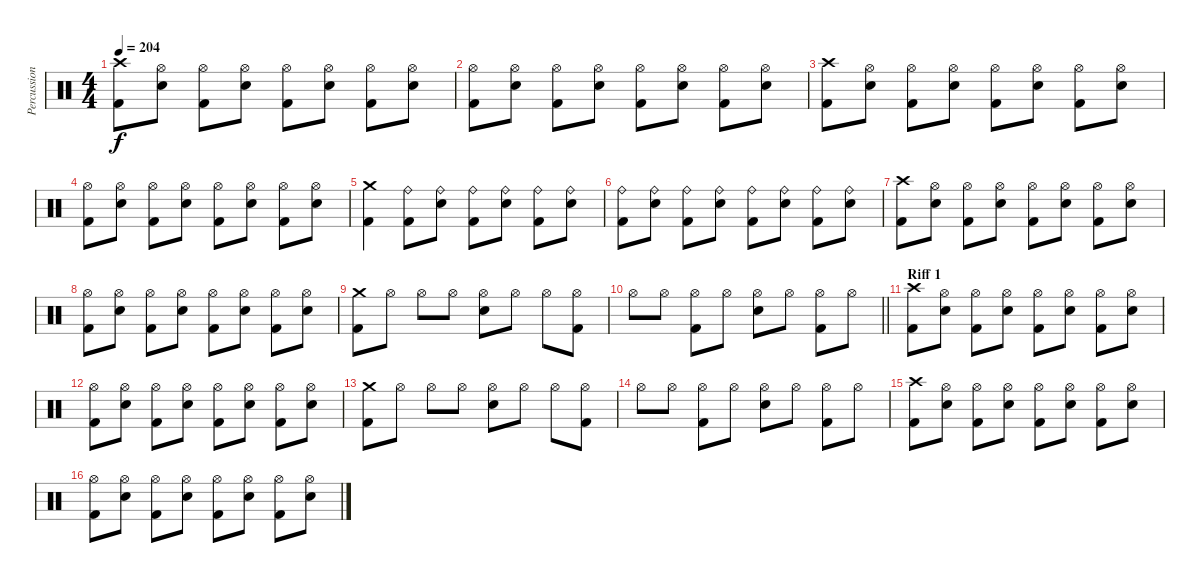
\track ("Percussions" "Percussion") {instrument percussion}
\staff {score}
\articulation defaults
\ts (4 4)
\tempo 204
\clef neutral
\ks c
("Crash high (hit)" "Kick (hit) 2").8{dy f} ("Hi-Hat (open)" "Electric Snare (hit)").8 ("Hi-Hat (open)" "Kick (hit) 2").8 ("Hi-Hat (open)" "Electric Snare (hit)").8 ("Hi-Hat (open)" "Kick (hit) 2").8 ("Hi-Hat (open)" "Electric Snare (hit)").8 ("Hi-Hat (open)" "Kick (hit) 2").8 ("Hi-Hat (open)" "Electric Snare (hit)").8 |
("Hi-Hat (open)" "Kick (hit) 2").8 ("Hi-Hat (open)" "Electric Snare (hit)").8 ("Hi-Hat (open)" "Kick (hit) 2").8 ("Hi-Hat (open)" "Electric Snare (hit)").8 ("Hi-Hat (open)" "Kick (hit) 2").8 ("Hi-Hat (open)" "Electric Snare (hit)").8 ("Hi-Hat (open)" "Kick (hit) 2").8 ("Hi-Hat (open)" "Electric Snare (hit)").8 |
("Crash high (hit)" "Kick (hit) 2").8 ("Hi-Hat (open)" "Electric Snare (hit)").8 ("Hi-Hat (open)" "Kick (hit) 2").8 ("Hi-Hat (open)" "Electric Snare (hit)").8 ("Hi-Hat (open)" "Kick (hit) 2").8 ("Hi-Hat (open)" "Electric Snare (hit)").8 ("Hi-Hat (open)" "Kick (hit) 2").8 ("Hi-Hat (open)" "Electric Snare (hit)").8 |
("Hi-Hat (open)" "Kick (hit) 2").8 ("Hi-Hat (open)" "Electric Snare (hit)").8 ("Hi-Hat (open)" "Kick (hit) 2").8 ("Hi-Hat (open)" "Electric Snare (hit)").8 ("Hi-Hat (open)" "Kick (hit) 2").8 ("Hi-Hat (open)" "Electric Snare (hit)").8 ("Hi-Hat (open)" "Kick (hit) 2").8 ("Hi-Hat (open)" "Electric Snare (hit)").8 |
("Crash medium (hit)" "Kick (hit) 2").4 ("Ride (bell)" "Kick (hit) 2").8 ("Ride (bell)" "Electric Snare (hit)").8 ("Ride (bell)" "Kick (hit) 2").8 ("Ride (bell)" "Electric Snare (hit)").8 ("Ride (bell)" "Kick (hit) 2").8 ("Ride (bell)" "Electric Snare (hit)").8 |
("Ride (bell)" "Kick (hit) 2").8 ("Ride (bell)" "Electric Snare (hit)").8 ("Ride (bell)" "Kick (hit) 2").8 ("Ride (bell)" "Electric Snare (hit)").8 ("Ride (bell)" "Kick (hit) 2").8 ("Ride (bell)" "Electric Snare (hit)").8 ("Ride (bell)" "Kick (hit) 2").8 ("Ride (bell)" "Electric Snare (hit)").8 |
("Crash high (hit)" "Kick (hit) 2").8 ("Hi-Hat (open)" "Electric Snare (hit)").8 ("Hi-Hat (open)" "Kick (hit) 2").8 ("Hi-Hat (open)" "Electric Snare (hit)").8 ("Hi-Hat (open)" "Kick (hit) 2").8 ("Hi-Hat (open)" "Electric Snare (hit)").8 ("Hi-Hat (open)" "Kick (hit) 2").8 ("Hi-Hat (open)" "Electric Snare (hit)").8 |
("Hi-Hat (open)" "Kick (hit) 2").8 ("Hi-Hat (open)" "Electric Snare (hit)").8 ("Hi-Hat (open)" "Kick (hit) 2").8 ("Hi-Hat (open)" "Electric Snare (hit)").8 ("Hi-Hat (open)" "Kick (hit) 2").8 ("Hi-Hat (open)" "Electric Snare (hit)").8 ("Hi-Hat (open)" "Kick (hit) 2").8 ("Hi-Hat (open)" "Electric Snare (hit)").8 |
("Crash medium (hit)" "Kick (hit) 2").8 "Hi-Hat (open)".8 "Hi-Hat (open)".8 "Hi-Hat (open)".8 ("Hi-Hat (open)" "Electric Snare (hit)").8 "Hi-Hat (open)".8 "Hi-Hat (open)".8 ("Hi-Hat (open)" "Kick (hit) 2").8 |
\barLineRight lightlight "Hi-Hat (open)".8 "Hi-Hat (open)".8
("Hi-Hat (open)" "Kick (hit) 2").8 "Hi-Hat (open)".8 ("Hi-Hat (open)" "Electric Snare (hit)").8 "Hi-Hat (open)".8 ("Hi-Hat (open)" "Kick (hit) 2").8 "Hi-Hat (open)".8 |
\section ("" "Riff 1")
("Crash high (hit)" "Kick (hit) 2").8 ("Hi-Hat (open)" "Electric Snare (hit)").8 ("Hi-Hat (open)" "Kick (hit) 2").8 ("Hi-Hat (open)" "Electric Snare (hit)").8 ("Hi-Hat (open)" "Kick (hit) 2").8 ("Hi-Hat (open)" "Electric Snare (hit)").8 ("Hi-Hat (open)" "Kick (hit) 2").8 ("Hi-Hat (open)" "Electric Snare (hit)").8 |
("Hi-Hat (open)" "Kick (hit) 2").8 ("Hi-Hat (open)" "Electric Snare (hit)").8 ("Hi-Hat (open)" "Kick (hit) 2").8 ("Hi-Hat (open)" "Electric Snare (hit)").8 ("Hi-Hat (open)" "Kick (hit) 2").8 ("Hi-Hat (open)" "Electric Snare (hit)").8 ("Hi-Hat (open)" "Kick (hit) 2").8 ("Hi-Hat (open)" "Electric Snare (hit)").8 |
("Crash medium (hit)" "Kick (hit) 2").8 "Hi-Hat (open)".8 "Hi-Hat (open)".8 "Hi-Hat (open)".8 ("Hi-Hat (open)" "Electric Snare (hit)").8 "Hi-Hat (open)".8 "Hi-Hat (open)".8 ("Hi-Hat (open)" "Kick (hit) 2").8 |
"Hi-Hat (open)".8 "Hi-Hat (open)".8 ("Hi-Hat (open)" "Kick (hit) 2").8 "Hi-Hat (open)".8 ("Hi-Hat (open)" "Electric Snare (hit)").8 "Hi-Hat (open)".8 ("Hi-Hat (open)" "Kick (hit) 2").8 "Hi-Hat (open)".8 |
("Crash high (hit)" "Kick (hit) 2").8 ("Hi-Hat (open)" "Electric Snare (hit)").8 ("Hi-Hat (open)" "Kick (hit) 2").8 ("Hi-Hat (open)" "Electric Snare (hit)").8 ("Hi-Hat (open)" "Kick (hit) 2").8 ("Hi-Hat (open)" "Electric Snare (hit)").8 ("Hi-Hat (open)" "Kick (hit) 2").8 ("Hi-Hat (open)" "Electric Snare (hit)").8 |
("Hi-Hat (open)" "Kick (hit) 2").8 ("Hi-Hat (open)" "Electric Snare (hit)").8 ("Hi-Hat (open)" "Kick (hit) 2").8 ("Hi-Hat (open)" "Electric Snare (hit)").8 ("Hi-Hat (open)" "Kick (hit) 2").8 ("Hi-Hat (open)" "Electric Snare (hit)").8 ("Hi-Hat (open)" "Kick (hit) 2").8 ("Hi-Hat (open)" "Electric Snare (hit)").8
